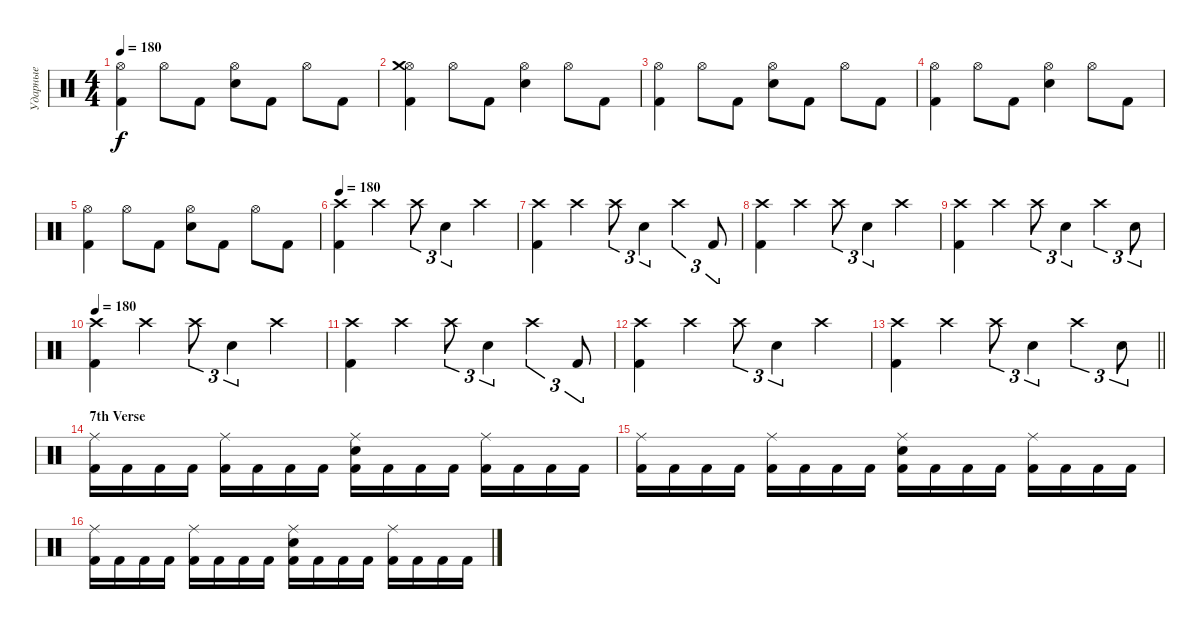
\track ("Ударные" "Ударные") {instrument percussion}
\staff {score}
\articulation defaults
\ts (4 4)
\tempo 180
\clef neutral
\ks c
("Kick (hit) 2" "Hi-Hat (open)").4{dy f} "Hi-Hat (open)".8 "Kick (hit) 2".8 ("Electric Snare (hit)" "Hi-Hat (open)").8 "Kick (hit) 2".8 "Hi-Hat (open)".8 "Kick (hit) 2".8 |
("Kick (hit) 2" "Hi-Hat (open)" "Crash medium (hit)").4 "Hi-Hat (open)".8 "Kick (hit) 2".8 ("Electric Snare (hit)" "Hi-Hat (open)").4 "Hi-Hat (open)".8 "Kick (hit) 2".8 |
("Kick (hit) 2" "Hi-Hat (open)").4 "Hi-Hat (open)".8 "Kick (hit) 2".8 ("Electric Snare (hit)" "Hi-Hat (open)").8 "Kick (hit) 2".8 "Hi-Hat (open)".8 "Kick (hit) 2".8 |
("Kick (hit) 2" "Hi-Hat (open)").4 "Hi-Hat (open)".8 "Kick (hit) 2".8 ("Electric Snare (hit)" "Hi-Hat (open)").4 "Hi-Hat (open)".8 "Kick (hit) 2".8 |
("Kick (hit) 2" "Hi-Hat (open)").4 "Hi-Hat (open)".8 "Kick (hit) 2".8 ("Electric Snare (hit)" "Hi-Hat (open)").8 "Kick (hit) 2".8 "Hi-Hat (open)".8 "Kick (hit) 2".8 |
\tempo 180
("Kick (hit) 2" "Crash high (hit)").4 "Crash high (hit)".4 "Crash high (hit)".8{tu (3 2)} "Electric Snare (hit)".4{tu (3 2)} "Crash high (hit)".4 |
("Kick (hit) 2" "Crash high (hit)").4 "Crash high (hit)".4 "Crash high (hit)".8{tu (3 2)} "Electric Snare (hit)".4{tu (3 2)} "Crash high (hit)".4{tu (3 2)} "Kick (hit) 2".8{tu (3 2)} |
("Kick (hit) 2" "Crash high (hit)").4 "Crash high (hit)".4 "Crash high (hit)".8{tu (3 2)} "Electric Snare (hit)".4{tu (3 2)} "Crash high (hit)".4 |
("Kick (hit) 2" "Crash high (hit)").4 "Crash high (hit)".4 "Crash high (hit)".8{tu (3 2)} "Electric Snare (hit)".4{tu (3 2)} "Crash high (hit)".4{tu (3 2)} "Electric Snare (hit)".8{tu (3 2)} |
\tempo 180
("Kick (hit) 2" "Crash high (hit)").4 "Crash high (hit)".4 "Crash high (hit)".8{tu (3 2)} "Electric Snare (hit)".4{tu (3 2)} "Crash high (hit)".4 |
("Kick (hit) 2" "Crash high (hit)").4 "Crash high (hit)".4 "Crash high (hit)".8{tu (3 2)} "Electric Snare (hit)".4{tu (3 2)} "Crash high (hit)".4{tu (3 2)} "Kick (hit) 2".8{tu (3 2)} |
("Kick (hit) 2" "Crash high (hit)").4 "Crash high (hit)".4 "Crash high (hit)".8{tu (3 2)} "Electric Snare (hit)".4{tu (3 2)} "Crash high (hit)".4 |
\barLineRight lightlight
("Kick (hit) 2" "Crash high (hit)").4 "Crash high (hit)".4 "Crash high (hit)".8{tu (3 2)} "Electric Snare (hit)".4{tu (3 2)} "Crash high (hit)".4{tu (3 2)} "Electric Snare (hit)".8{tu (3 2)} |
\section ("" "7th Verse")
("Kick (hit) 2" "Ride (middle)").16 "Kick (hit) 2".16 "Kick (hit) 2".16 "Kick (hit) 2".16 ("Kick (hit) 2" "Ride (middle)").16 "Kick (hit) 2".16 "Kick (hit) 2".16 "Kick (hit) 2".16 ("Kick (hit) 2" "Electric Snare (hit)" "Ride (middle)").16 "Kick (hit) 2".16 "Kick (hit) 2".16 "Kick (hit) 2".16 ("Kick (hit) 2" "Ride (middle)").16 "Kick (hit) 2".16 "Kick (hit) 2".16 "Kick (hit) 2".16 |
("Kick (hit) 2" "Ride (middle)").16 "Kick (hit) 2".16 "Kick (hit) 2".16 "Kick (hit) 2".16 ("Kick (hit) 2" "Ride (middle)").16 "Kick (hit) 2".16 "Kick (hit) 2".16 "Kick (hit) 2".16 ("Kick (hit) 2" "Electric Snare (hit)" "Ride (middle)").16 "Kick (hit) 2".16 "Kick (hit) 2".16 "Kick (hit) 2".16 ("Kick (hit) 2" "Ride (middle)").16 "Kick (hit) 2".16 "Kick (hit) 2".16 "Kick (hit) 2".16 |
("Kick (hit) 2" "Ride (middle)").16 "Kick (hit) 2".16 "Kick (hit) 2".16 "Kick (hit) 2".16 ("Kick (hit) 2" "Ride (middle)").16 "Kick (hit) 2".16 "Kick (hit) 2".16 "Kick (hit) 2".16 ("Kick (hit) 2" "Electric Snare (hit)" "Ride (middle)").16 "Kick (hit) 2".16 "Kick (hit) 2".16 "Kick (hit) 2".16 ("Kick (hit) 2" "Ride (middle)").16 "Kick (hit) 2".16 "Kick (hit) 2".16 "Kick (hit) 2".16
